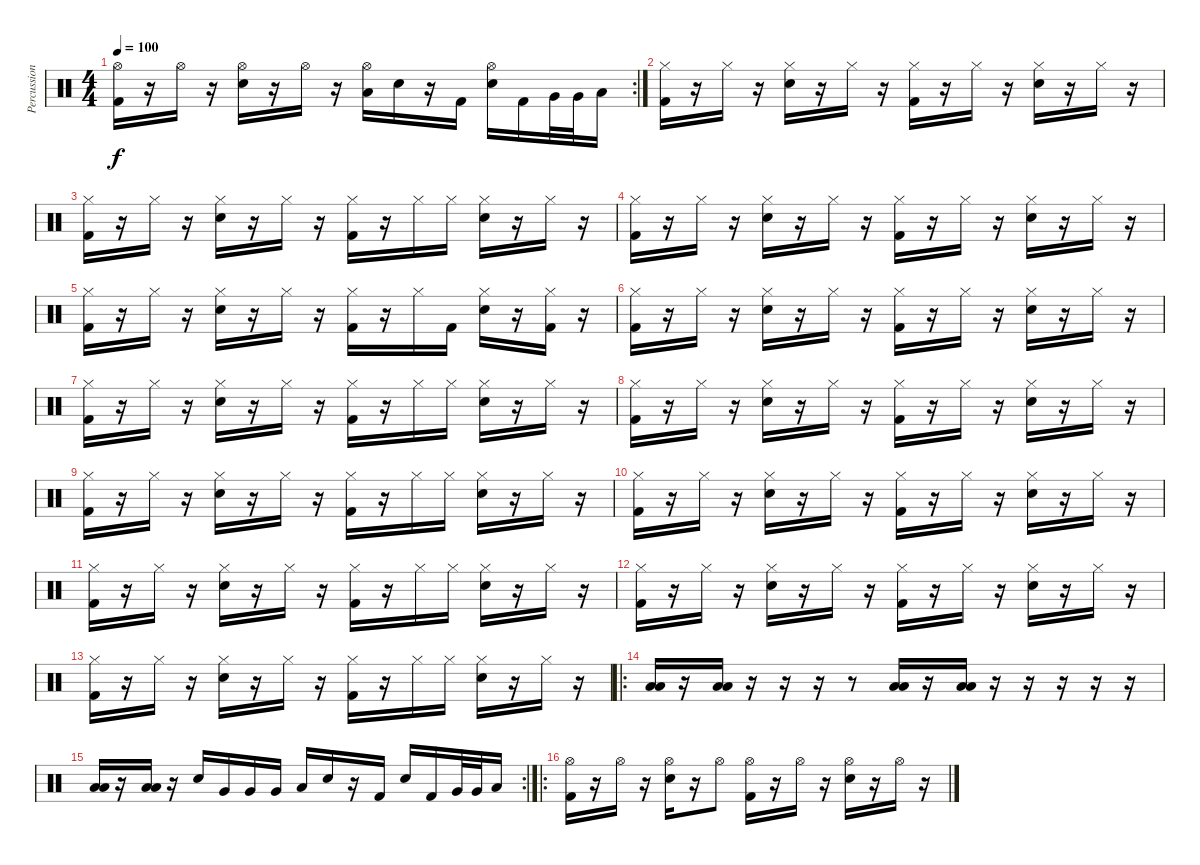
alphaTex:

\track ("Percussion" "Percussion") {instrument percussion}
\staff {score}
\articulation defaults
\rc 2
\ts (4 4)
\tempo 100
\clef neutral
\ks c
("Kick (hit) 2" "Hi-Hat (open)").16{dy f} r.16 "Hi-Hat (open)".16 r.16 ("Electric Snare (hit)" "Hi-Hat (open)").16 r.16 "Hi-Hat (open)".16 r.16 ("Low Tom (hit)" "Hi-Hat (open)").16 "Electric Snare (hit)".16 r.16 "Kick (hit) 2".16 ("Electric Snare (hit)" "Hi-Hat (open)").16 "Kick (hit) 2".16 "Very Low Tom (hit)".32 "Very Low Tom (hit)".32 "Low Floor Tom (hit)".16 |
("Kick (hit) 2" "Hi-Hat (closed)").16 r.16 "Hi-Hat (closed)".16 r.16 ("Electric Snare (hit)" "Hi-Hat (closed)").16 r.16 "Hi-Hat (closed)".16 r.16 ("Kick (hit) 2" "Hi-Hat (closed)").16 r.16 "Hi-Hat (closed)".16 r.16 ("Electric Snare (hit)" "Hi-Hat (closed)").16 r.16 "Hi-Hat (closed)".16 r.16 |
("Kick (hit) 2" "Hi-Hat (closed)").16 r.16 "Hi-Hat (closed)".16 r.16 ("Electric Snare (hit)" "Hi-Hat (closed)").16 r.16 "Hi-Hat (closed)".16 r.16 ("Kick (hit) 2" "Hi-Hat (closed)").16 r.16 "Hi-Hat (closed)".16 "Hi-Hat (closed)".16 ("Electric Snare (hit)" "Hi-Hat (closed)").16 r.16 "Hi-Hat (closed)".16 r.16 |
("Kick (hit) 2" "Hi-Hat (closed)").16 r.16 "Hi-Hat (closed)".16 r.16 ("Electric Snare (hit)" "Hi-Hat (closed)").16 r.16 "Hi-Hat (closed)".16 r.16 ("Kick (hit) 2" "Hi-Hat (closed)").16 r.16 "Hi-Hat (closed)".16 r.16 ("Electric Snare (hit)" "Hi-Hat (closed)").16 r.16 "Hi-Hat (closed)".16 r.16 |
("Kick (hit) 2" "Hi-Hat (closed)").16 r.16 "Hi-Hat (closed)".16 r.16 ("Electric Snare (hit)" "Hi-Hat (closed)").16 r.16 "Hi-Hat (closed)".16 r.16 ("Kick (hit) 2" "Hi-Hat (closed)").16 r.16 "Hi-Hat (closed)".16 "Kick (hit) 2".16 ("Electric Snare (hit)" "Hi-Hat (closed)").16 r.16 ("Kick (hit) 2" "Hi-Hat (closed)").16 r.16 |
("Kick (hit) 2" "Hi-Hat (closed)").16 r.16 "Hi-Hat (closed)".16 r.16 ("Electric Snare (hit)" "Hi-Hat (closed)").16 r.16 "Hi-Hat (closed)".16 r.16 ("Kick (hit) 2" "Hi-Hat (closed)").16 r.16 "Hi-Hat (closed)".16 r.16 ("Electric Snare (hit)" "Hi-Hat (closed)").16 r.16 "Hi-Hat (closed)".16 r.16 |
("Kick (hit) 2" "Hi-Hat (closed)").16 r.16 "Hi-Hat (closed)".16 r.16 ("Electric Snare (hit)" "Hi-Hat (closed)").16 r.16 "Hi-Hat (closed)".16 r.16 ("Kick (hit) 2" "Hi-Hat (closed)").16 r.16 "Hi-Hat (closed)".16 "Hi-Hat (closed)".16 ("Electric Snare (hit)" "Hi-Hat (closed)").16 r.16 "Hi-Hat (closed)".16 r.16 |
("Kick (hit) 2" "Hi-Hat (closed)").16 r.16 "Hi-Hat (closed)".16 r.16 ("Electric Snare (hit)" "Hi-Hat (closed)").16 r.16 "Hi-Hat (closed)".16 r.16 ("Kick (hit) 2" "Hi-Hat (closed)").16 r.16 "Hi-Hat (closed)".16 r.16 ("Electric Snare (hit)" "Hi-Hat (closed)").16 r.16 "Hi-Hat (closed)".16 r.16 |
("Kick (hit) 2" "Hi-Hat (closed)").16 r.16 "Hi-Hat (closed)".16 r.16 ("Electric Snare (hit)" "Hi-Hat (closed)").16 r.16 "Hi-Hat (closed)".16 r.16 ("Kick (hit) 2" "Hi-Hat (closed)").16 r.16 "Hi-Hat (closed)".16 "Hi-Hat (closed)".16 ("Electric Snare (hit)" "Hi-Hat (closed)").16 r.16 "Hi-Hat (closed)".16 r.16 |
("Kick (hit) 2" "Hi-Hat (closed)").16 r.16 "Hi-Hat (closed)".16 r.16 ("Electric Snare (hit)" "Hi-Hat (closed)").16 r.16 "Hi-Hat (closed)".16 r.16 ("Kick (hit) 2" "Hi-Hat (closed)").16 r.16 "Hi-Hat (closed)".16 r.16 ("Electric Snare (hit)" "Hi-Hat (closed)").16 r.16 "Hi-Hat (closed)".16 r.16 |
("Kick (hit) 2" "Hi-Hat (closed)").16 r.16 "Hi-Hat (closed)".16 r.16 ("Electric Snare (hit)" "Hi-Hat (closed)").16 r.16 "Hi-Hat (closed)".16 r.16 ("Kick (hit) 2" "Hi-Hat (closed)").16 r.16 "Hi-Hat (closed)".16 "Hi-Hat (closed)".16 ("Electric Snare (hit)" "Hi-Hat (closed)").16 r.16 "Hi-Hat (closed)".16 r.16 |
("Kick (hit) 2" "Hi-Hat (closed)").16 r.16 "Hi-Hat (closed)".16 r.16 ("Electric Snare (hit)" "Hi-Hat (closed)").16 r.16 "Hi-Hat (closed)".16 r.16 ("Kick (hit) 2" "Hi-Hat (closed)").16 r.16 "Hi-Hat (closed)".16 r.16 ("Electric Snare (hit)" "Hi-Hat (closed)").16 r.16 "Hi-Hat (closed)".16 r.16 |
("Kick (hit) 2" "Hi-Hat (closed)").16 r.16 "Hi-Hat (closed)".16 r.16 ("Electric Snare (hit)" "Hi-Hat (closed)").16 r.16 "Hi-Hat (closed)".16 r.16 ("Kick (hit) 2" "Hi-Hat (closed)").16 r.16 "Hi-Hat (closed)".16 "Hi-Hat (closed)".16 ("Electric Snare (hit)" "Hi-Hat (closed)").16 r.16 "Hi-Hat (closed)".16 r.16 |
\ro
("Low Floor Tom (hit)" "Low Tom (hit)").16 r.16 ("Low Floor Tom (hit)" "Low Tom (hit)").16 r.16 r.16 r.16 r.8 ("Low Floor Tom (hit)" "Low Tom (hit)").16 r.16 ("Low Floor Tom (hit)" "Low Tom (hit)").16 r.16 r.16 r.16 r.16 r.16 |
\rc 2
("Low Floor Tom (hit)" "Low Tom (hit)").16 r.16 ("Low Floor Tom (hit)" "Low Tom (hit)").16 r.16 "Electric Snare (hit)".16 "Very Low Tom (hit)".16 "Very Low Tom (hit)".16 "Very Low Tom (hit)".16 "Low Tom (hit)".16 "Electric Snare (hit)".16 r.16 "Kick (hit) 2".16 "Electric Snare (hit)".16 "Kick (hit) 2".16 "Very Low Tom (hit)".32 "Very Low Tom (hit)".32 "Low Floor Tom (hit)".16 |
\ro
("Kick (hit) 2" "Hi-Hat (open)").16 r.16 "Hi-Hat (open)".16 r.16 ("Electric Snare (hit)" "Hi-Hat (open)").16 r.16 "Hi-Hat (open)".8 ("Kick (hit) 2" "Hi-Hat (open)").16 r.16 "Hi-Hat (open)".16 r.16 ("Electric Snare (hit)" "Hi-Hat (open)").16 r.16 "Hi-Hat (open)".16 r.16
